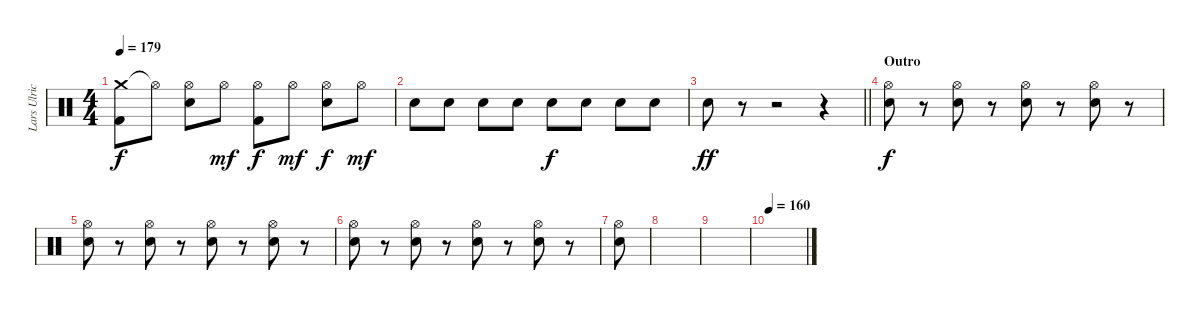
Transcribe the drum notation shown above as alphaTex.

\track ("Lars Ulrich" "Lars Ulric") {instrument percussion}
\staff {score}
\articulation defaults
\ts (4 4)
\tempo 179
\clef neutral
\ks c
("Crash medium (hit)" "Kick (hit) 2").8{dy f} "Hi-Hat (open)"{t}.8 ("Hi-Hat (open)" "Electric Snare (hit)").8 "Hi-Hat (open)".8{dy mf} ("Hi-Hat (open)" "Kick (hit) 2").8{dy f} "Hi-Hat (open)".8{dy mf} ("Hi-Hat (open)" "Electric Snare (hit)").8{dy f} "Hi-Hat (open)".8{dy mf} |
"Electric Snare (hit)".8 "Electric Snare (hit)".8 "Electric Snare (hit)".8 "Electric Snare (hit)".8 "Electric Snare (hit)".8{dy f} "Electric Snare (hit)".8 "Electric Snare (hit)".8 "Electric Snare (hit)".8 |
\barLineRight lightlight "Electric Snare (hit)".8{dy ff}
r.8 r.2 r.4 |
\section ("" "Outro")
("Hi-Hat (open)" "Electric Snare (hit)").8{dy f} r.8 ("Hi-Hat (open)" "Electric Snare (hit)").8 r.8 ("Hi-Hat (open)" "Electric Snare (hit)").8 r.8 ("Hi-Hat (open)" "Electric Snare (hit)").8 r.8 |
("Hi-Hat (open)" "Electric Snare (hit)").8 r.8 ("Hi-Hat (open)" "Electric Snare (hit)").8 r.8 ("Hi-Hat (open)" "Electric Snare (hit)").8 r.8 ("Hi-Hat (open)" "Electric Snare (hit)").8 r.8 |
("Hi-Hat (open)" "Electric Snare (hit)").8 r.8 ("Hi-Hat (open)" "Electric Snare (hit)").8 r.8 ("Hi-Hat (open)" "Electric Snare (hit)").8 r.8 ("Hi-Hat (open)" "Electric Snare (hit)").8 r.8 |
("Hi-Hat (open)" "Electric Snare (hit)").8 |
|
|
\tempo 160
